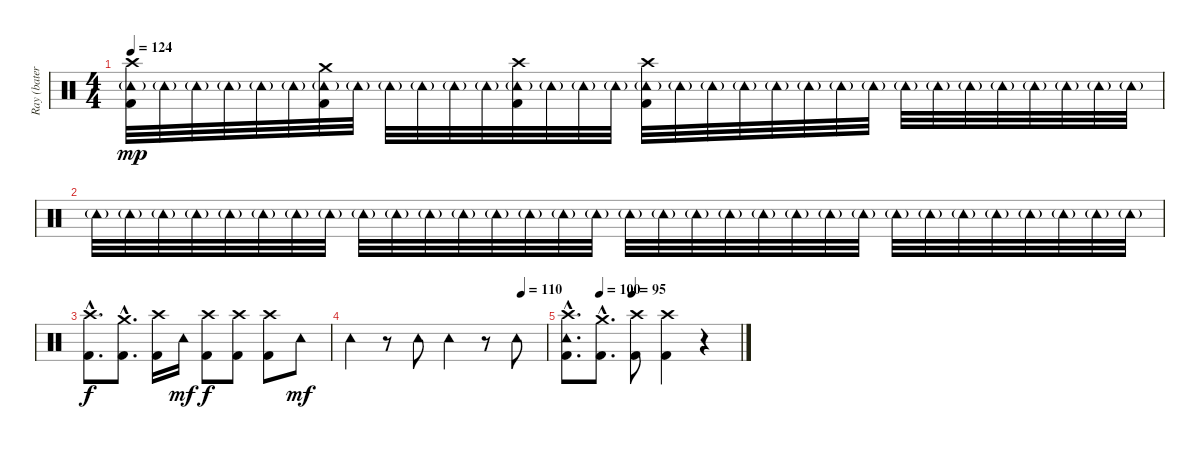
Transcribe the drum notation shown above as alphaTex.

\track ("Ray (batería)" "Ray (bater") {instrument percussion}
\staff {score}
\articulation defaults
\ts (4 4)
\tempo 124
\clef neutral
\ks c
("Crash high (hit)" "Tambourine (hit)"{g} "Kick (hit) 2").32{dy mp} "Tambourine (hit)"{g}.32 "Tambourine (hit)"{g}.32 "Tambourine (hit)"{g}.32 "Tambourine (hit)"{g}.32 "Tambourine (hit)"{g}.32 ("Crash medium (hit)" "Tambourine (hit)"{g} "Kick (hit) 2").32 "Tambourine (hit)"{g}.32 "Tambourine (hit)"{g}.32 "Tambourine (hit)"{g}.32 "Tambourine (hit)"{g}.32 "Tambourine (hit)"{g}.32 ("Crash high (hit)" "Tambourine (hit)"{g} "Kick (hit) 2").32 "Tambourine (hit)"{g}.32 "Tambourine (hit)"{g}.32 "Tambourine (hit)"{g}.32 ("Crash high (hit)" "Tambourine (hit)"{g} "Kick (hit) 2").32 "Tambourine (hit)"{g}.32 "Tambourine (hit)"{g}.32 "Tambourine (hit)"{g}.32 "Tambourine (hit)"{g}.32 "Tambourine (hit)"{g}.32 "Tambourine (hit)"{g}.32 "Tambourine (hit)"{g}.32 "Tambourine (hit)"{g}.32{volume 14} "Tambourine (hit)"{g}.32 "Tambourine (hit)"{g}.32 "Tambourine (hit)"{g}.32 "Tambourine (hit)"{g}.32{volume 13} "Tambourine (hit)"{g}.32 "Tambourine (hit)"{g}.32 "Tambourine (hit)"{g}.32 |
"Tambourine (hit)"{g}.32{volume 12} "Tambourine (hit)"{g}.32 "Tambourine (hit)"{g}.32 "Tambourine (hit)"{g}.32 "Tambourine (hit)"{g}.32{volume 11} "Tambourine (hit)"{g}.32 "Tambourine (hit)"{g}.32 "Tambourine (hit)"{g}.32 "Tambourine (hit)"{g}.32{volume 11} "Tambourine (hit)"{g}.32 "Tambourine (hit)"{g}.32 "Tambourine (hit)"{g}.32 "Tambourine (hit)"{g}.32{volume 9} "Tambourine (hit)"{g}.32 "Tambourine (hit)"{g}.32 "Tambourine (hit)"{g}.32 "Tambourine (hit)"{g}.32{volume 8} "Tambourine (hit)"{g}.32 "Tambourine (hit)"{g}.32 "Tambourine (hit)"{g}.32 "Tambourine (hit)"{g}.32{volume 7} "Tambourine (hit)"{g}.32 "Tambourine (hit)"{g}.32 "Tambourine (hit)"{g}.32 "Tambourine (hit)"{g}.32{volume 5} "Tambourine (hit)"{g}.32 "Tambourine (hit)"{g}.32 "Tambourine (hit)"{g}.32 "Tambourine (hit)"{g}.32{volume 3} "Tambourine (hit)"{g}.32 "Tambourine (hit)"{g}.32 "Tambourine (hit)"{g}.32 |
("Crash high (hit)"{hac} "Kick (hit) 2"{hac}).8{d dy f volume 15} ("Crash medium (hit)"{hac} "Kick (hit) 2"{hac}).8{d} ("Crash high (hit)" "Kick (hit) 2").16 "Tambourine (hit)".16{dy mf} ("Crash high (hit)" "Kick (hit) 2").8{dy f} ("Crash high (hit)" "Kick (hit) 2").8 ("Crash high (hit)" "Kick (hit) 2").8 "Tambourine (hit)".8{dy mf} |
\tempo (110 0.875)
"Tambourine (hit)".4 r.8 "Tambourine (hit)".8 "Tambourine (hit)".4 r.8 "Tambourine (hit)".8 |
\tempo (100 0.1875)
\tempo (95 0.375)
("Crash high (hit)"{hac} "Tambourine (hit)"{hac} "Kick (hit) 2"{hac}).8{d} ("Crash medium (hit)"{hac} "Kick (hit) 2"{hac}).8{d} ("Crash high (hit)" "Kick (hit) 2").8 ("Crash high (hit)" "Kick (hit) 2").4 r.4
